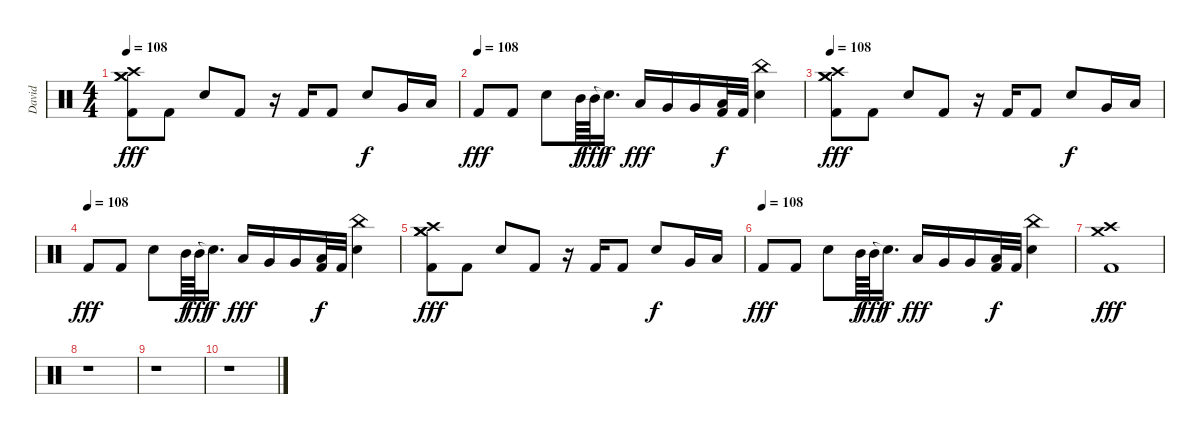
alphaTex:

\track ("David" "David") {instrument percussion}
\staff {score}
\articulation defaults
\ts (4 4)
\tempo 108
\clef neutral
\ks c
("Crash medium (hit)" "Crash high (hit)" "Crash medium (hit)" "Kick (hit) 2").8{dy fff} "Kick (hit) 2".8 "Snare (hit) 2".8 "Kick (hit) 2".8 r.16 "Kick (hit) 2".16 "Kick (hit) 2".8 "Snare (hit) 2".8{dy f} "Very Low Tom (hit)".16 "Low Tom (hit)".16 |
\tempo (108)
"Kick (hit) 2".8{dy fff} "Kick (hit) 2".8 "Snare (hit) 2".8 "Mid Tom (hit)".64{dy f} "Mid Tom (hit)".64{dy fff} "Snare (hit)"{t}.16{d dy f} "Low Tom (hit)".16{dy fff} "Very Low Tom (hit)".16 "Very Low Tom (hit)".16 ("Low Floor Tom (hit)" "Kick (hit) 2").32{dy f} "Kick (hit) 2".32 ("China (hit)" "Snare (hit) 2").4 |
\tempo 108
("Crash medium (hit)" "Crash high (hit)" "Crash medium (hit)" "Kick (hit) 2").8{dy fff} "Kick (hit) 2".8 "Snare (hit) 2".8 "Kick (hit) 2".8 r.16 "Kick (hit) 2".16 "Kick (hit) 2".8 "Snare (hit) 2".8{dy f} "Very Low Tom (hit)".16 "Low Tom (hit)".16 |
\tempo (108)
"Kick (hit) 2".8{dy fff} "Kick (hit) 2".8 "Snare (hit) 2".8 "Mid Tom (hit)".64{dy f} "Mid Tom (hit)".64{dy fff} "Snare (hit)"{t}.16{d dy f} "Low Tom (hit)".16{dy fff} "Very Low Tom (hit)".16 "Very Low Tom (hit)".16 ("Low Floor Tom (hit)" "Kick (hit) 2").32{dy f} "Kick (hit) 2".32 ("China (hit)" "Snare (hit) 2").4 |
("Crash medium (hit)" "Crash high (hit)" "Crash medium (hit)" "Kick (hit) 2").8{dy fff} "Kick (hit) 2".8 "Snare (hit) 2".8 "Kick (hit) 2".8 r.16 "Kick (hit) 2".16 "Kick (hit) 2".8 "Snare (hit) 2".8{dy f} "Very Low Tom (hit)".16 "Low Tom (hit)".16 |
\tempo (108)
"Kick (hit) 2".8{dy fff} "Kick (hit) 2".8 "Snare (hit) 2".8 "Mid Tom (hit)".64{dy f} "Mid Tom (hit)".64{dy fff} "Snare (hit)"{t}.16{d dy f} "Low Tom (hit)".16{dy fff} "Very Low Tom (hit)".16 "Very Low Tom (hit)".16 ("Low Floor Tom (hit)" "Kick (hit) 2").32{dy f} "Kick (hit) 2".32 ("China (hit)" "Snare (hit) 2").4 |
("Crash medium (hit)" "Crash high (hit)" "Kick (hit) 2").1{dy fff} |
r.1 |
r.1 |
r.1
